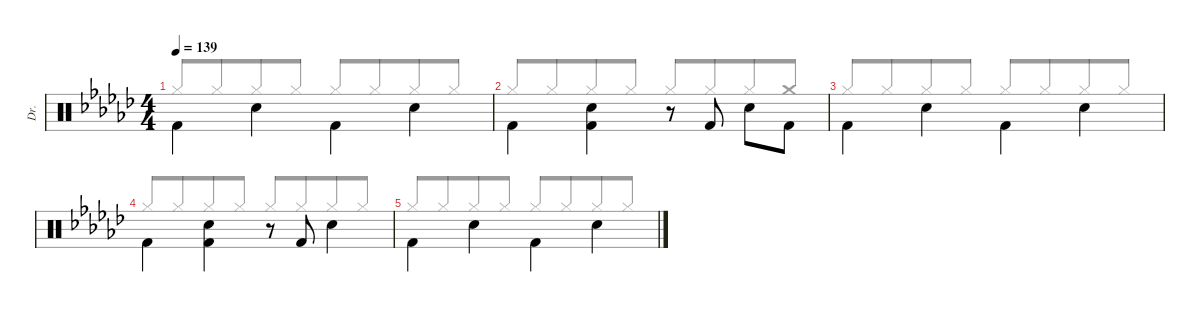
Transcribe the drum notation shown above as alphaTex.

\defaultSystemsLayout 4
\hideDynamics
\bracketExtendMode groupsimilarinstruments
\otherSystemsTrackNameOrientation horizontal
\track ("Drums" "Dr.") {multiBarRest instrument percussion}
\staff {score}
\articulation defaults
\voice
\ts (4 4)
\tempo 139
\clef neutral
\ks gb "Kick (hit) 2"{acc forcenatural}.4{dy f beam Down} "Snare (hit) 2"{acc forcenatural}.4{beam Down} "Kick (hit) 2"{acc forcenatural}.4{beam Down} "Snare (hit) 2"{acc forcenatural}.4{beam Down}
|
"Kick (hit) 2"{acc forcenatural}.4{beam Down} ("Kick (hit) 2"{acc forcenatural} "Snare (hit) 2"{acc forcenatural}).4{beam Down} r.8{beam Up} "Kick (hit) 2"{acc forcenatural}.8{beam Down} "Snare (hit) 2"{acc forcenatural}.8{beam Down} "Kick (hit) 2"{acc forcenatural}.8{beam Down} |
"Kick (hit) 2"{acc forcenatural}.4{beam Down} "Snare (hit) 2"{acc forcenatural}.4{beam Down} "Kick (hit) 2"{acc forcenatural}.4{beam Down} "Snare (hit) 2"{acc forcenatural}.4{beam Down} |
"Kick (hit) 2"{acc forcenatural}.4{beam Down} ("Kick (hit) 2"{acc forcenatural} "Snare (hit) 2"{acc forcenatural}).4{beam Down} r.8{beam Up} "Kick (hit) 2"{acc forcenatural}.8{beam Down} "Snare (hit) 2"{acc forcenatural}.4{beam Down} |
"Kick (hit) 2"{acc forcenatural}.4{beam Down} "Snare (hit) 2"{acc forcenatural}.4{beam Down} "Kick (hit) 2"{acc forcenatural}.4{beam Down} "Snare (hit) 2"{acc forcenatural}.4{beam Down}
\voice
\clef neutral
\ottava regular
\simile none
\ks gb "Hi-Hat (closed)"{acc forcenatural}.8{dy f beam Up} "Hi-Hat (closed)"{acc forcenatural}.8{beam Up beam merge} "Hi-Hat (closed)"{acc forcenatural}.8{beam Up} "Hi-Hat (closed)"{acc forcenatural}.8{beam Up} "Hi-Hat (closed)"{acc forcenatural}.8{beam Up} "Hi-Hat (closed)"{acc forcenatural}.8{beam Up beam merge} "Hi-Hat (closed)"{acc forcenatural}.8{beam Up} "Hi-Hat (closed)"{acc forcenatural}.8{beam Up}
|
"Hi-Hat (closed)"{acc forcenatural}.8{beam Up beam merge} "Hi-Hat (closed)"{acc forcenatural}.8{beam Up beam merge} "Hi-Hat (closed)"{acc forcenatural}.8{beam Up} "Hi-Hat (closed)"{acc forcenatural}.8{beam Up} "Hi-Hat (closed)"{acc forcenatural}.8{beam Up} "Hi-Hat (closed)"{acc forcenatural}.8{beam Up beam merge} "Hi-Hat (closed)"{acc forcenatural}.8{beam Up beam merge} "Crash medium (hit)"{acc forcenatural}.8{beam Up} |
"Hi-Hat (closed)"{acc forcenatural}.8{beam Up} "Hi-Hat (closed)"{acc forcenatural}.8{beam Up beam merge} "Hi-Hat (closed)"{acc forcenatural}.8{beam Up} "Hi-Hat (closed)"{acc forcenatural}.8{beam Up} "Hi-Hat (closed)"{acc forcenatural}.8{beam Up} "Hi-Hat (closed)"{acc forcenatural}.8{beam Up beam merge} "Hi-Hat (closed)"{acc forcenatural}.8{beam Up} "Hi-Hat (closed)"{acc forcenatural}.8{beam Up} |
"Hi-Hat (closed)"{acc forcenatural}.8{beam Up} "Hi-Hat (closed)"{acc forcenatural}.8{beam Up beam merge} "Hi-Hat (closed)"{acc forcenatural}.8{beam Up} "Hi-Hat (closed)"{acc forcenatural}.8{beam Up} "Hi-Hat (closed)"{acc forcenatural}.8{beam Up beam merge} "Hi-Hat (closed)"{acc forcenatural}.8{beam Up beam merge} "Hi-Hat (closed)"{acc forcenatural}.8{beam Up beam merge} "Hi-Hat (closed)"{acc forcenatural}.8{beam Up} |
"Hi-Hat (closed)"{acc forcenatural}.8{beam Up} "Hi-Hat (closed)"{acc forcenatural}.8{beam Up beam merge} "Hi-Hat (closed)"{acc forcenatural}.8{beam Up} "Hi-Hat (closed)"{acc forcenatural}.8{beam Up} "Hi-Hat (closed)"{acc forcenatural}.8{beam Up} "Hi-Hat (closed)"{acc forcenatural}.8{beam Up beam merge} "Hi-Hat (closed)"{acc forcenatural}.8{beam Up} "Hi-Hat (closed)"{acc forcenatural}.8{beam Up}
